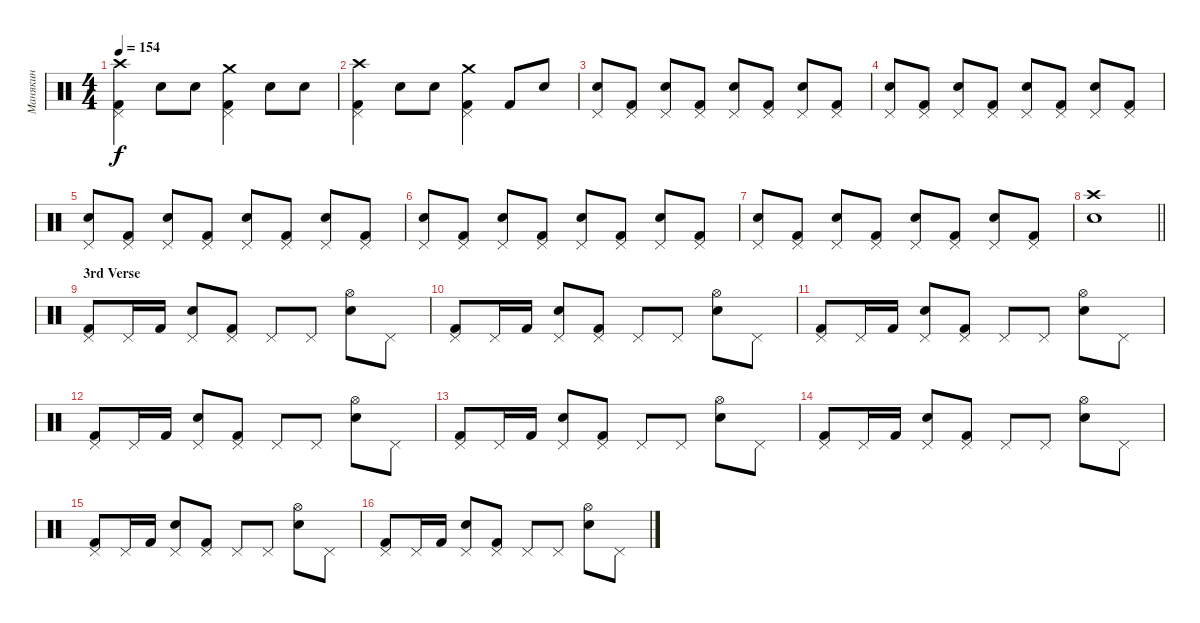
\track ("Манякин" "Манякин") {instrument percussion}
\staff {score}
\articulation defaults
\ts (4 4)
\tempo 154
\clef neutral
\ks c
("Crash high (hit)" "Kick (hit) 2" "Pedal Hi-Hat (hit)").4{dy f} "Electric Snare (hit)".8 "Electric Snare (hit)".8 ("Crash medium (hit)" "Kick (hit) 2" "Pedal Hi-Hat (hit)").4 "Electric Snare (hit)".8 "Electric Snare (hit)".8 |
("Crash high (hit)" "Kick (hit) 2" "Pedal Hi-Hat (hit)").4 "Electric Snare (hit)".8 "Electric Snare (hit)".8 ("Crash medium (hit)" "Kick (hit) 2" "Pedal Hi-Hat (hit)").4 "Kick (hit) 2".8 "Electric Snare (hit)".8 |
("Electric Snare (hit)" "Pedal Hi-Hat (hit)").8 ("Kick (hit) 2" "Pedal Hi-Hat (hit)").8 ("Electric Snare (hit)" "Pedal Hi-Hat (hit)").8 ("Kick (hit) 2" "Pedal Hi-Hat (hit)").8 ("Electric Snare (hit)" "Pedal Hi-Hat (hit)").8 ("Kick (hit) 2" "Pedal Hi-Hat (hit)").8 ("Electric Snare (hit)" "Pedal Hi-Hat (hit)").8 ("Kick (hit) 2" "Pedal Hi-Hat (hit)").8 |
("Electric Snare (hit)" "Pedal Hi-Hat (hit)").8 ("Kick (hit) 2" "Pedal Hi-Hat (hit)").8 ("Electric Snare (hit)" "Pedal Hi-Hat (hit)").8 ("Kick (hit) 2" "Pedal Hi-Hat (hit)").8 ("Electric Snare (hit)" "Pedal Hi-Hat (hit)").8 ("Kick (hit) 2" "Pedal Hi-Hat (hit)").8 ("Electric Snare (hit)" "Pedal Hi-Hat (hit)").8 ("Kick (hit) 2" "Pedal Hi-Hat (hit)").8 |
("Electric Snare (hit)" "Pedal Hi-Hat (hit)").8 ("Kick (hit) 2" "Pedal Hi-Hat (hit)").8 ("Electric Snare (hit)" "Pedal Hi-Hat (hit)").8 ("Kick (hit) 2" "Pedal Hi-Hat (hit)").8 ("Electric Snare (hit)" "Pedal Hi-Hat (hit)").8 ("Kick (hit) 2" "Pedal Hi-Hat (hit)").8 ("Electric Snare (hit)" "Pedal Hi-Hat (hit)").8 ("Kick (hit) 2" "Pedal Hi-Hat (hit)").8 |
("Electric Snare (hit)" "Pedal Hi-Hat (hit)").8 ("Kick (hit) 2" "Pedal Hi-Hat (hit)").8 ("Electric Snare (hit)" "Pedal Hi-Hat (hit)").8 ("Kick (hit) 2" "Pedal Hi-Hat (hit)").8 ("Electric Snare (hit)" "Pedal Hi-Hat (hit)").8 ("Kick (hit) 2" "Pedal Hi-Hat (hit)").8 ("Electric Snare (hit)" "Pedal Hi-Hat (hit)").8 ("Kick (hit) 2" "Pedal Hi-Hat (hit)").8 |
("Electric Snare (hit)" "Pedal Hi-Hat (hit)").8 ("Kick (hit) 2" "Pedal Hi-Hat (hit)").8 ("Electric Snare (hit)" "Pedal Hi-Hat (hit)").8 ("Kick (hit) 2" "Pedal Hi-Hat (hit)").8 ("Electric Snare (hit)" "Pedal Hi-Hat (hit)").8 ("Kick (hit) 2" "Pedal Hi-Hat (hit)").8 ("Electric Snare (hit)" "Pedal Hi-Hat (hit)").8 ("Kick (hit) 2" "Pedal Hi-Hat (hit)").8 |
\barLineRight lightlight
("Crash high (hit)" "Electric Snare (hit)").1 |
\section ("" "3rd Verse")
("Pedal Hi-Hat (hit)" "Kick (hit) 2").8 "Pedal Hi-Hat (hit)".16 "Kick (hit) 2".16 ("Pedal Hi-Hat (hit)" "Electric Snare (hit)").8 ("Pedal Hi-Hat (hit)" "Kick (hit) 2").8 "Pedal Hi-Hat (hit)".8 "Pedal Hi-Hat (hit)".8 ("Hi-Hat (open)" "Electric Snare (hit)").8 "Pedal Hi-Hat (hit)".8 |
("Pedal Hi-Hat (hit)" "Kick (hit) 2").8 "Pedal Hi-Hat (hit)".16 "Kick (hit) 2".16 ("Pedal Hi-Hat (hit)" "Electric Snare (hit)").8 ("Pedal Hi-Hat (hit)" "Kick (hit) 2").8 "Pedal Hi-Hat (hit)".8 "Pedal Hi-Hat (hit)".8 ("Hi-Hat (open)" "Electric Snare (hit)").8 "Pedal Hi-Hat (hit)".8 |
("Pedal Hi-Hat (hit)" "Kick (hit) 2").8 "Pedal Hi-Hat (hit)".16 "Kick (hit) 2".16 ("Pedal Hi-Hat (hit)" "Electric Snare (hit)").8 ("Pedal Hi-Hat (hit)" "Kick (hit) 2").8 "Pedal Hi-Hat (hit)".8 "Pedal Hi-Hat (hit)".8 ("Hi-Hat (open)" "Electric Snare (hit)").8 "Pedal Hi-Hat (hit)".8 |
("Pedal Hi-Hat (hit)" "Kick (hit) 2").8 "Pedal Hi-Hat (hit)".16 "Kick (hit) 2".16 ("Pedal Hi-Hat (hit)" "Electric Snare (hit)").8 ("Pedal Hi-Hat (hit)" "Kick (hit) 2").8 "Pedal Hi-Hat (hit)".8 "Pedal Hi-Hat (hit)".8 ("Hi-Hat (open)" "Electric Snare (hit)").8 "Pedal Hi-Hat (hit)".8 |
("Pedal Hi-Hat (hit)" "Kick (hit) 2").8 "Pedal Hi-Hat (hit)".16 "Kick (hit) 2".16 ("Pedal Hi-Hat (hit)" "Electric Snare (hit)").8 ("Pedal Hi-Hat (hit)" "Kick (hit) 2").8 "Pedal Hi-Hat (hit)".8 "Pedal Hi-Hat (hit)".8 ("Hi-Hat (open)" "Electric Snare (hit)").8 "Pedal Hi-Hat (hit)".8 |
("Pedal Hi-Hat (hit)" "Kick (hit) 2").8 "Pedal Hi-Hat (hit)".16 "Kick (hit) 2".16 ("Pedal Hi-Hat (hit)" "Electric Snare (hit)").8 ("Pedal Hi-Hat (hit)" "Kick (hit) 2").8 "Pedal Hi-Hat (hit)".8 "Pedal Hi-Hat (hit)".8 ("Hi-Hat (open)" "Electric Snare (hit)").8 "Pedal Hi-Hat (hit)".8 |
("Pedal Hi-Hat (hit)" "Kick (hit) 2").8 "Pedal Hi-Hat (hit)".16 "Kick (hit) 2".16 ("Pedal Hi-Hat (hit)" "Electric Snare (hit)").8 ("Pedal Hi-Hat (hit)" "Kick (hit) 2").8 "Pedal Hi-Hat (hit)".8 "Pedal Hi-Hat (hit)".8 ("Hi-Hat (open)" "Electric Snare (hit)").8 "Pedal Hi-Hat (hit)".8 |
("Pedal Hi-Hat (hit)" "Kick (hit) 2").8 "Pedal Hi-Hat (hit)".16 "Kick (hit) 2".16 ("Pedal Hi-Hat (hit)" "Electric Snare (hit)").8 ("Pedal Hi-Hat (hit)" "Kick (hit) 2").8 "Pedal Hi-Hat (hit)".8 "Pedal Hi-Hat (hit)".8 ("Hi-Hat (open)" "Electric Snare (hit)").8 "Pedal Hi-Hat (hit)".8
